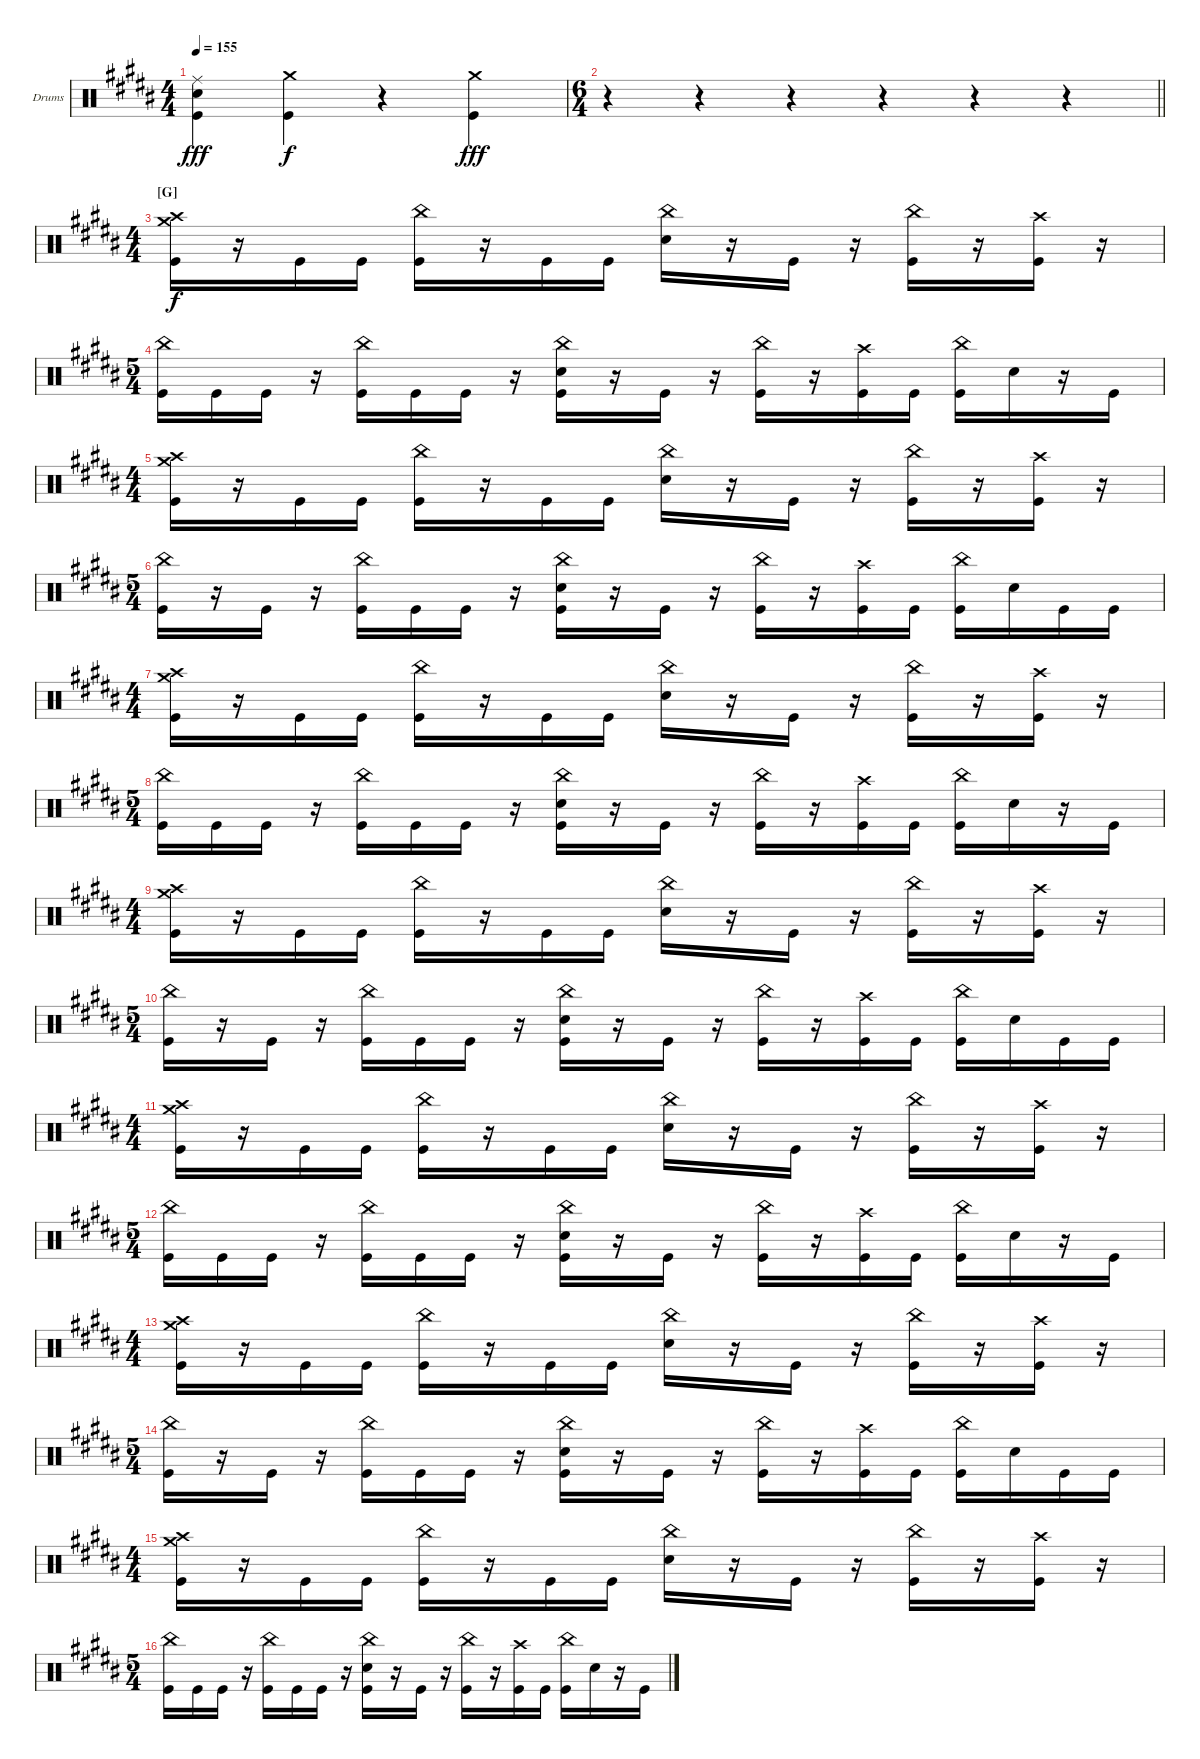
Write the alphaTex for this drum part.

\bracketExtendMode groupsimilarinstruments
\firstSystemTrackNameOrientation horizontal
\otherSystemsTrackNameOrientation horizontal
\track ("Drumkit" "Drums") {instrument percussion}
\staff {score}
\articulation defaults
\ts (4 4)
\tempo 155
\clef neutral
\ks b
("Ride (middle)" "Snare (hit) 2" "Kick (hit)").4{dy fff} ("Crash medium (hit)" "Kick (hit)").4{dy f} r.4 ("Crash medium (hit)" "Kick (hit)").4{dy fff} |
\ts (6 4)
\barLineRight lightlight
r.4 r.4 r.4 r.4 r.4 r.4 |
\ts (4 4)
\section ("G" "")
("Crash medium (hit)" "Crash high (hit)" "Kick (hit)").16{dy f} r.16 "Kick (hit)".16 "Kick (hit)".16 ("China (hit)" "Kick (hit)").16 r.16 "Kick (hit)".16 "Kick (hit)".16 ("China (hit)" "Snare (hit) 2").16 r.16 "Kick (hit)".16 r.16 ("China (hit)" "Kick (hit)").16 r.16 ("Crash high (hit)" "Kick (hit)").16 r.16 |
\ts (5 4)
("China (hit)" "Kick (hit)").16 "Kick (hit)".16 "Kick (hit)".16 r.16 ("China (hit)" "Kick (hit)").16 "Kick (hit)".16 "Kick (hit)".16 r.16 ("China (hit)" "Snare (hit) 2" "Kick (hit)").16 r.16 "Kick (hit)".16 r.16 ("China (hit)" "Kick (hit)").16 r.16 ("Crash high (hit)" "Kick (hit)").16 "Kick (hit)".16 ("China (hit)" "Kick (hit)").16 "Snare (hit) 2".16 r.16 "Kick (hit)".16 |
\ts (4 4)
("Crash medium (hit)" "Crash high (hit)" "Kick (hit)").16 r.16 "Kick (hit)".16 "Kick (hit)".16 ("China (hit)" "Kick (hit)").16 r.16 "Kick (hit)".16 "Kick (hit)".16 ("China (hit)" "Snare (hit) 2").16 r.16 "Kick (hit)".16 r.16 ("China (hit)" "Kick (hit)").16 r.16 ("Crash high (hit)" "Kick (hit)").16 r.16 |
\ts (5 4)
("China (hit)" "Kick (hit)").16 r.16 "Kick (hit)".16 r.16 ("China (hit)" "Kick (hit)").16 "Kick (hit)".16 "Kick (hit)".16 r.16 ("China (hit)" "Snare (hit) 2" "Kick (hit)").16 r.16 "Kick (hit)".16 r.16 ("China (hit)" "Kick (hit)").16 r.16 ("Crash high (hit)" "Kick (hit)").16 "Kick (hit)".16 ("China (hit)" "Kick (hit)").16 "Snare (hit) 2".16 "Kick (hit)".16 "Kick (hit)".16 |
\ts (4 4)
("Crash medium (hit)" "Crash high (hit)" "Kick (hit)").16 r.16 "Kick (hit)".16 "Kick (hit)".16 ("China (hit)" "Kick (hit)").16 r.16 "Kick (hit)".16 "Kick (hit)".16 ("China (hit)" "Snare (hit) 2").16 r.16 "Kick (hit)".16 r.16 ("China (hit)" "Kick (hit)").16 r.16 ("Crash high (hit)" "Kick (hit)").16 r.16 |
\ts (5 4)
("China (hit)" "Kick (hit)").16 "Kick (hit)".16 "Kick (hit)".16 r.16 ("China (hit)" "Kick (hit)").16 "Kick (hit)".16 "Kick (hit)".16 r.16 ("China (hit)" "Snare (hit) 2" "Kick (hit)").16 r.16 "Kick (hit)".16 r.16 ("China (hit)" "Kick (hit)").16 r.16 ("Crash high (hit)" "Kick (hit)").16 "Kick (hit)".16 ("China (hit)" "Kick (hit)").16 "Snare (hit) 2".16 r.16 "Kick (hit)".16 |
\ts (4 4)
("Crash medium (hit)" "Crash high (hit)" "Kick (hit)").16 r.16 "Kick (hit)".16 "Kick (hit)".16 ("China (hit)" "Kick (hit)").16 r.16 "Kick (hit)".16 "Kick (hit)".16 ("China (hit)" "Snare (hit) 2").16 r.16 "Kick (hit)".16 r.16 ("China (hit)" "Kick (hit)").16 r.16 ("Crash high (hit)" "Kick (hit)").16 r.16 |
\ts (5 4)
("China (hit)" "Kick (hit)").16 r.16 "Kick (hit)".16 r.16 ("China (hit)" "Kick (hit)").16 "Kick (hit)".16 "Kick (hit)".16 r.16 ("China (hit)" "Snare (hit) 2" "Kick (hit)").16 r.16 "Kick (hit)".16 r.16 ("China (hit)" "Kick (hit)").16 r.16 ("Crash high (hit)" "Kick (hit)").16 "Kick (hit)".16 ("China (hit)" "Kick (hit)").16 "Snare (hit) 2".16 "Kick (hit)".16 "Kick (hit)".16 |
\ts (4 4)
("Crash medium (hit)" "Crash high (hit)" "Kick (hit)").16 r.16 "Kick (hit)".16 "Kick (hit)".16 ("China (hit)" "Kick (hit)").16 r.16 "Kick (hit)".16 "Kick (hit)".16 ("China (hit)" "Snare (hit) 2").16 r.16 "Kick (hit)".16 r.16 ("China (hit)" "Kick (hit)").16 r.16 ("Crash high (hit)" "Kick (hit)").16 r.16 |
\ts (5 4)
("China (hit)" "Kick (hit)").16 "Kick (hit)".16 "Kick (hit)".16 r.16 ("China (hit)" "Kick (hit)").16 "Kick (hit)".16 "Kick (hit)".16 r.16 ("China (hit)" "Snare (hit) 2" "Kick (hit)").16 r.16 "Kick (hit)".16 r.16 ("China (hit)" "Kick (hit)").16 r.16 ("Crash high (hit)" "Kick (hit)").16 "Kick (hit)".16 ("China (hit)" "Kick (hit)").16 "Snare (hit) 2".16 r.16 "Kick (hit)".16 |
\ts (4 4)
("Crash medium (hit)" "Crash high (hit)" "Kick (hit)").16 r.16 "Kick (hit)".16 "Kick (hit)".16 ("China (hit)" "Kick (hit)").16 r.16 "Kick (hit)".16 "Kick (hit)".16 ("China (hit)" "Snare (hit) 2").16 r.16 "Kick (hit)".16 r.16 ("China (hit)" "Kick (hit)").16 r.16 ("Crash high (hit)" "Kick (hit)").16 r.16 |
\ts (5 4)
("China (hit)" "Kick (hit)").16 r.16 "Kick (hit)".16 r.16 ("China (hit)" "Kick (hit)").16 "Kick (hit)".16 "Kick (hit)".16 r.16 ("China (hit)" "Snare (hit) 2" "Kick (hit)").16 r.16 "Kick (hit)".16 r.16 ("China (hit)" "Kick (hit)").16 r.16 ("Crash high (hit)" "Kick (hit)").16 "Kick (hit)".16 ("China (hit)" "Kick (hit)").16 "Snare (hit) 2".16 "Kick (hit)".16 "Kick (hit)".16 |
\ts (4 4)
("Crash medium (hit)" "Crash high (hit)" "Kick (hit)").16 r.16 "Kick (hit)".16 "Kick (hit)".16 ("China (hit)" "Kick (hit)").16 r.16 "Kick (hit)".16 "Kick (hit)".16 ("China (hit)" "Snare (hit) 2").16 r.16 "Kick (hit)".16 r.16 ("China (hit)" "Kick (hit)").16 r.16 ("Crash high (hit)" "Kick (hit)").16 r.16 |
\ts (5 4)
("China (hit)" "Kick (hit)").16 "Kick (hit)".16 "Kick (hit)".16 r.16 ("China (hit)" "Kick (hit)").16 "Kick (hit)".16 "Kick (hit)".16 r.16 ("China (hit)" "Snare (hit) 2" "Kick (hit)").16 r.16 "Kick (hit)".16 r.16 ("China (hit)" "Kick (hit)").16 r.16 ("Crash high (hit)" "Kick (hit)").16 "Kick (hit)".16 ("China (hit)" "Kick (hit)").16 "Snare (hit) 2".16 r.16 "Kick (hit)".16
